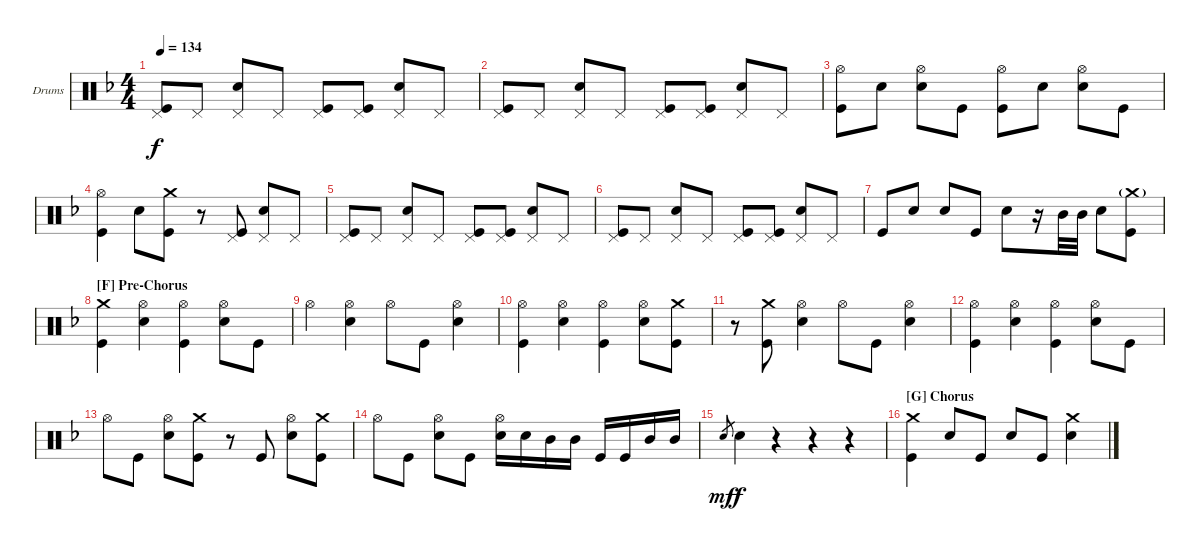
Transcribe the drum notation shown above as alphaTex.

\defaultSystemsLayout 4
\bracketExtendMode groupsimilarinstruments
\firstSystemTrackNameOrientation horizontal
\otherSystemsTrackNameOrientation horizontal
\track ("Carmine" "Drums") {instrument percussion}
\staff {score}
\articulation defaults
\ts (4 4)
\tempo 134
\clef neutral
\ks f
("Pedal Hi-Hat (hit)" "Kick (hit)").8{dy f} "Pedal Hi-Hat (hit)".8 ("Pedal Hi-Hat (hit)" "Snare (hit) 2").8 "Pedal Hi-Hat (hit)".8 ("Pedal Hi-Hat (hit)" "Kick (hit)").8 ("Pedal Hi-Hat (hit)" "Kick (hit)").8 ("Pedal Hi-Hat (hit)" "Snare (hit) 2").8 "Pedal Hi-Hat (hit)".8 |
("Pedal Hi-Hat (hit)" "Kick (hit)").8 "Pedal Hi-Hat (hit)".8 ("Pedal Hi-Hat (hit)" "Snare (hit) 2").8 "Pedal Hi-Hat (hit)".8 ("Pedal Hi-Hat (hit)" "Kick (hit)").8 ("Pedal Hi-Hat (hit)" "Kick (hit)").8 ("Pedal Hi-Hat (hit)" "Snare (hit) 2").8 "Pedal Hi-Hat (hit)".8 |
("Hi-Hat (open)" "Kick (hit)").8 "Snare (hit) 2".8 ("Hi-Hat (open)" "Snare (hit) 2").8 "Kick (hit)".8 ("Hi-Hat (open)" "Kick (hit)").8 "Snare (hit) 2".8 ("Hi-Hat (open)" "Snare (hit) 2").8 "Kick (hit)".8 |
("Hi-Hat (open)" "Kick (hit)").4 "Snare (hit) 2".8 ("Crash medium (hit)" "Kick (hit)").8 r.8 ("Pedal Hi-Hat (hit)" "Kick (hit)").8 ("Pedal Hi-Hat (hit)" "Snare (hit) 2").8 "Pedal Hi-Hat (hit)".8 |
("Pedal Hi-Hat (hit)" "Kick (hit)").8 "Pedal Hi-Hat (hit)".8 ("Pedal Hi-Hat (hit)" "Snare (hit) 2").8 "Pedal Hi-Hat (hit)".8 ("Pedal Hi-Hat (hit)" "Kick (hit)").8 ("Pedal Hi-Hat (hit)" "Kick (hit)").8 ("Pedal Hi-Hat (hit)" "Snare (hit) 2").8 "Pedal Hi-Hat (hit)".8 |
("Pedal Hi-Hat (hit)" "Kick (hit)").8 "Pedal Hi-Hat (hit)".8 ("Pedal Hi-Hat (hit)" "Snare (hit) 2").8 "Pedal Hi-Hat (hit)".8 ("Pedal Hi-Hat (hit)" "Kick (hit)").8 ("Pedal Hi-Hat (hit)" "Kick (hit)").8 ("Pedal Hi-Hat (hit)" "Snare (hit) 2").8 "Pedal Hi-Hat (hit)".8 |
"Kick (hit)".8 "Snare (hit) 2".8 "Snare (hit) 2".8 "Kick (hit)".8 "Snare (hit) 2".8 r.16 "Mid Tom (hit)".32 "Mid Tom (hit)".32 "Snare (hit) 2".8 ("Crash medium (hit)"{g} "Kick (hit)").8 |
\section ("F" "Pre-Chorus")
("Crash medium (hit)" "Kick (hit)").4 ("Hi-Hat (open)" "Snare (hit) 2").4 ("Hi-Hat (open)" "Kick (hit)").4 ("Hi-Hat (open)" "Snare (hit) 2").8 "Kick (hit)".8 |
"Hi-Hat (open)".4 ("Hi-Hat (open)" "Snare (hit) 2").4 "Hi-Hat (open)".8 "Kick (hit)".8 ("Hi-Hat (open)" "Snare (hit) 2").4 |
("Hi-Hat (open)" "Kick (hit)").4 ("Hi-Hat (open)" "Snare (hit) 2").4 ("Hi-Hat (open)" "Kick (hit)").4 ("Hi-Hat (open)" "Snare (hit) 2").8 ("Crash medium (hit)" "Kick (hit)").8 |
r.8 ("Crash medium (hit)" "Kick (hit)").8 ("Hi-Hat (open)" "Snare (hit) 2").4 "Hi-Hat (open)".8 "Kick (hit)".8 ("Hi-Hat (open)" "Snare (hit) 2").4 |
("Hi-Hat (open)" "Kick (hit)").4 ("Hi-Hat (open)" "Snare (hit) 2").4 ("Hi-Hat (open)" "Kick (hit)").4 ("Hi-Hat (open)" "Snare (hit) 2").8 "Kick (hit)".8 |
"Hi-Hat (open)".8 "Kick (hit)".8 ("Hi-Hat (open)" "Snare (hit) 2").8 ("Crash medium (hit)" "Kick (hit)").8 r.8 "Kick (hit)".8 ("Hi-Hat (open)" "Snare (hit) 2").8 ("Crash medium (hit)" "Kick (hit)").8 |
"Hi-Hat (open)".8 "Kick (hit)".8 ("Hi-Hat (open)" "Snare (hit) 2").8 "Kick (hit)".8 ("Hi-Hat (open)" "Snare (hit) 2").16 "Snare (hit) 2".16 "Mid Tom (hit)".16 "Mid Tom (hit)".16 "Kick (hit)".16 "Kick (hit)".16 "Mid Tom (hit)".16 "Mid Tom (hit)".16 |
"Snare (hit) 2".8{gr dy mf} "Snare (hit) 2".4{dy f} r.4 r.4 r.4 |
\section ("G" "Chorus")
("Crash medium (hit)" "Kick (hit)").4 "Snare (hit) 2".8 "Kick (hit)".8 "Snare (hit) 2".8 "Kick (hit)".8 ("Crash medium (hit)" "Snare (hit) 2").4
